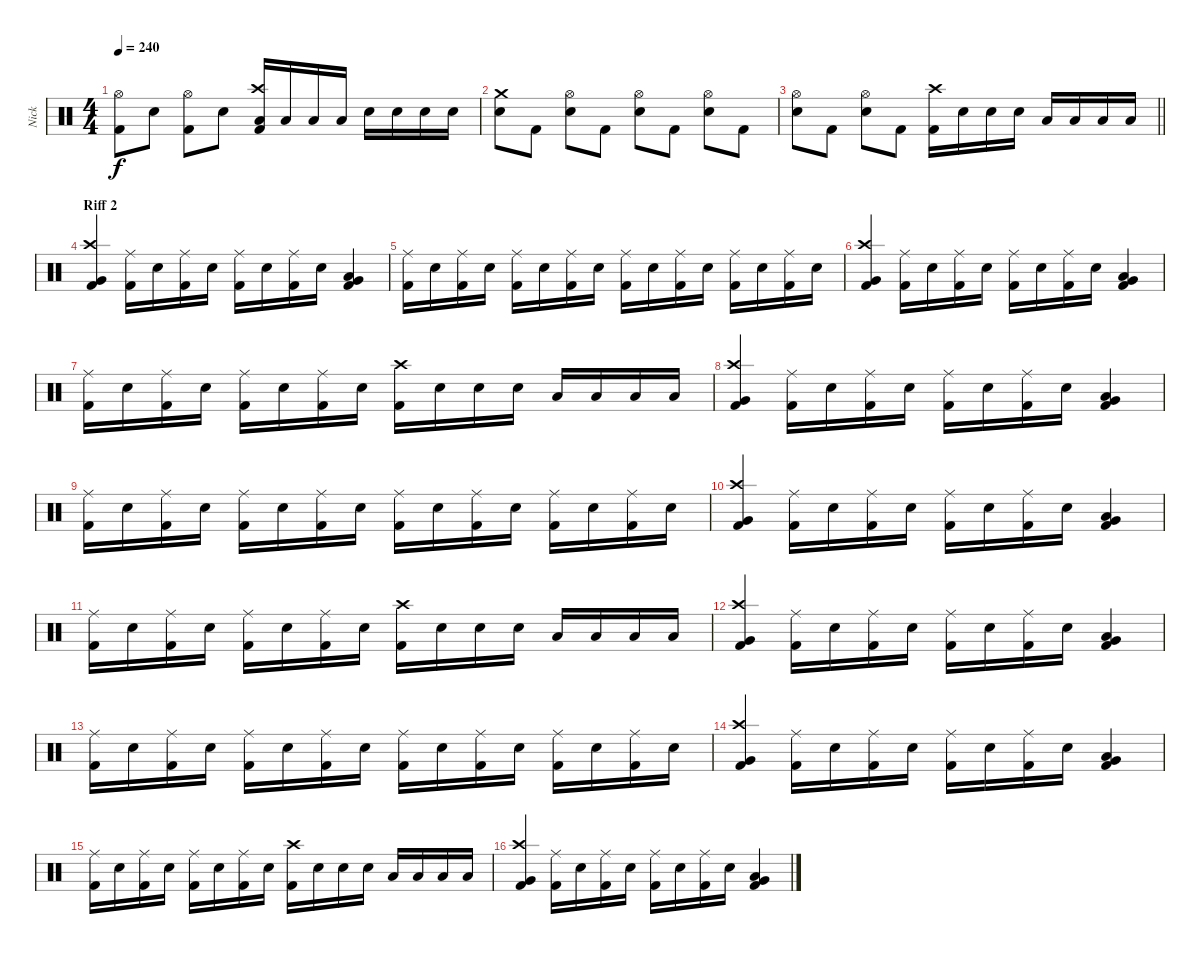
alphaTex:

\track ("Nick" "Nick") {instrument percussion}
\staff {score}
\articulation defaults
\ts (4 4)
\tempo 240
\clef neutral
\ks c
("Hi-Hat (open)" "Kick (hit) 2").8{dy f} "Electric Snare (hit)".8 ("Hi-Hat (open)" "Kick (hit) 2").8 "Electric Snare (hit)".8 ("Crash high (hit)" "Low Tom (hit)" "Kick (hit) 2").16 "Low Tom (hit)".16 "Low Tom (hit)".16 "Low Tom (hit)".16 "Electric Snare (hit)".16 "Electric Snare (hit)".16 "Electric Snare (hit)".16 "Electric Snare (hit)".16 |
("Crash medium (hit)" "Electric Snare (hit)").8 "Kick (hit) 2".8 ("Hi-Hat (open)" "Electric Snare (hit)").8 "Kick (hit) 2".8 ("Hi-Hat (open)" "Electric Snare (hit)").8 "Kick (hit) 2".8 ("Hi-Hat (open)" "Electric Snare (hit)").8 "Kick (hit) 2".8 |
\barLineRight lightlight
("Hi-Hat (open)" "Electric Snare (hit)").8 "Kick (hit) 2".8 ("Hi-Hat (open)" "Electric Snare (hit)").8 "Kick (hit) 2".8 ("Crash high (hit)" "Kick (hit) 2").16 "Electric Snare (hit)".16 "Electric Snare (hit)".16 "Electric Snare (hit)".16 "Low Tom (hit)".16 "Low Tom (hit)".16 "Low Tom (hit)".16 "Low Tom (hit)".16 |
\section ("" "Riff 2")
("Crash high (hit)" "Very Low Tom (hit)" "Kick (hit) 2").4 ("Ride (middle)" "Kick (hit) 2").16 "Electric Snare (hit)".16 ("Ride (middle)" "Kick (hit) 2").16 "Electric Snare (hit)".16 ("Ride (middle)" "Kick (hit) 2").16 "Electric Snare (hit)".16 ("Ride (middle)" "Kick (hit) 2").16 "Electric Snare (hit)".16 ("Low Tom (hit)" "Very Low Tom (hit)" "Kick (hit) 2").4 |
("Ride (middle)" "Kick (hit) 2").16 "Electric Snare (hit)".16 ("Ride (middle)" "Kick (hit) 2").16 "Electric Snare (hit)".16 ("Ride (middle)" "Kick (hit) 2").16 "Electric Snare (hit)".16 ("Ride (middle)" "Kick (hit) 2").16 "Electric Snare (hit)".16 ("Ride (middle)" "Kick (hit) 2").16 "Electric Snare (hit)".16 ("Ride (middle)" "Kick (hit) 2").16 "Electric Snare (hit)".16 ("Ride (middle)" "Kick (hit) 2").16 "Electric Snare (hit)".16 ("Ride (middle)" "Kick (hit) 2").16 "Electric Snare (hit)".16 |
("Crash high (hit)" "Very Low Tom (hit)" "Kick (hit) 2").4 ("Ride (middle)" "Kick (hit) 2").16 "Electric Snare (hit)".16 ("Ride (middle)" "Kick (hit) 2").16 "Electric Snare (hit)".16 ("Ride (middle)" "Kick (hit) 2").16 "Electric Snare (hit)".16 ("Ride (middle)" "Kick (hit) 2").16 "Electric Snare (hit)".16 ("Low Tom (hit)" "Very Low Tom (hit)" "Kick (hit) 2").4 |
("Ride (middle)" "Kick (hit) 2").16 "Electric Snare (hit)".16 ("Ride (middle)" "Kick (hit) 2").16 "Electric Snare (hit)".16 ("Ride (middle)" "Kick (hit) 2").16 "Electric Snare (hit)".16 ("Ride (middle)" "Kick (hit) 2").16 "Electric Snare (hit)".16 ("Crash high (hit)" "Kick (hit) 2").16 "Electric Snare (hit)".16 "Electric Snare (hit)".16 "Electric Snare (hit)".16 "Low Tom (hit)".16 "Low Tom (hit)".16 "Low Tom (hit)".16 "Low Tom (hit)".16 |
("Crash high (hit)" "Very Low Tom (hit)" "Kick (hit) 2").4 ("Ride (middle)" "Kick (hit) 2").16 "Electric Snare (hit)".16 ("Ride (middle)" "Kick (hit) 2").16 "Electric Snare (hit)".16 ("Ride (middle)" "Kick (hit) 2").16 "Electric Snare (hit)".16 ("Ride (middle)" "Kick (hit) 2").16 "Electric Snare (hit)".16 ("Low Tom (hit)" "Very Low Tom (hit)" "Kick (hit) 2").4 |
("Ride (middle)" "Kick (hit) 2").16 "Electric Snare (hit)".16 ("Ride (middle)" "Kick (hit) 2").16 "Electric Snare (hit)".16 ("Ride (middle)" "Kick (hit) 2").16 "Electric Snare (hit)".16 ("Ride (middle)" "Kick (hit) 2").16 "Electric Snare (hit)".16 ("Ride (middle)" "Kick (hit) 2").16 "Electric Snare (hit)".16 ("Ride (middle)" "Kick (hit) 2").16 "Electric Snare (hit)".16 ("Ride (middle)" "Kick (hit) 2").16 "Electric Snare (hit)".16 ("Ride (middle)" "Kick (hit) 2").16 "Electric Snare (hit)".16 |
("Crash high (hit)" "Very Low Tom (hit)" "Kick (hit) 2").4 ("Ride (middle)" "Kick (hit) 2").16 "Electric Snare (hit)".16 ("Ride (middle)" "Kick (hit) 2").16 "Electric Snare (hit)".16 ("Ride (middle)" "Kick (hit) 2").16 "Electric Snare (hit)".16 ("Ride (middle)" "Kick (hit) 2").16 "Electric Snare (hit)".16 ("Low Tom (hit)" "Very Low Tom (hit)" "Kick (hit) 2").4 |
("Ride (middle)" "Kick (hit) 2").16 "Electric Snare (hit)".16 ("Ride (middle)" "Kick (hit) 2").16 "Electric Snare (hit)".16 ("Ride (middle)" "Kick (hit) 2").16 "Electric Snare (hit)".16 ("Ride (middle)" "Kick (hit) 2").16 "Electric Snare (hit)".16 ("Crash high (hit)" "Kick (hit) 2").16 "Electric Snare (hit)".16 "Electric Snare (hit)".16 "Electric Snare (hit)".16 "Low Tom (hit)".16 "Low Tom (hit)".16 "Low Tom (hit)".16 "Low Tom (hit)".16 |
("Crash high (hit)" "Very Low Tom (hit)" "Kick (hit) 2").4 ("Ride (middle)" "Kick (hit) 2").16 "Electric Snare (hit)".16 ("Ride (middle)" "Kick (hit) 2").16 "Electric Snare (hit)".16 ("Ride (middle)" "Kick (hit) 2").16 "Electric Snare (hit)".16 ("Ride (middle)" "Kick (hit) 2").16 "Electric Snare (hit)".16 ("Low Tom (hit)" "Very Low Tom (hit)" "Kick (hit) 2").4 |
("Ride (middle)" "Kick (hit) 2").16 "Electric Snare (hit)".16 ("Ride (middle)" "Kick (hit) 2").16 "Electric Snare (hit)".16 ("Ride (middle)" "Kick (hit) 2").16 "Electric Snare (hit)".16 ("Ride (middle)" "Kick (hit) 2").16 "Electric Snare (hit)".16 ("Ride (middle)" "Kick (hit) 2").16 "Electric Snare (hit)".16 ("Ride (middle)" "Kick (hit) 2").16 "Electric Snare (hit)".16 ("Ride (middle)" "Kick (hit) 2").16 "Electric Snare (hit)".16 ("Ride (middle)" "Kick (hit) 2").16 "Electric Snare (hit)".16 |
("Crash high (hit)" "Very Low Tom (hit)" "Kick (hit) 2").4 ("Ride (middle)" "Kick (hit) 2").16 "Electric Snare (hit)".16 ("Ride (middle)" "Kick (hit) 2").16 "Electric Snare (hit)".16 ("Ride (middle)" "Kick (hit) 2").16 "Electric Snare (hit)".16 ("Ride (middle)" "Kick (hit) 2").16 "Electric Snare (hit)".16 ("Low Tom (hit)" "Very Low Tom (hit)" "Kick (hit) 2").4 |
("Ride (middle)" "Kick (hit) 2").16 "Electric Snare (hit)".16 ("Ride (middle)" "Kick (hit) 2").16 "Electric Snare (hit)".16 ("Ride (middle)" "Kick (hit) 2").16 "Electric Snare (hit)".16 ("Ride (middle)" "Kick (hit) 2").16 "Electric Snare (hit)".16 ("Crash high (hit)" "Kick (hit) 2").16 "Electric Snare (hit)".16 "Electric Snare (hit)".16 "Electric Snare (hit)".16 "Low Tom (hit)".16 "Low Tom (hit)".16 "Low Tom (hit)".16 "Low Tom (hit)".16 |
("Crash high (hit)" "Very Low Tom (hit)" "Kick (hit) 2").4 ("Ride (middle)" "Kick (hit) 2").16 "Electric Snare (hit)".16 ("Ride (middle)" "Kick (hit) 2").16 "Electric Snare (hit)".16 ("Ride (middle)" "Kick (hit) 2").16 "Electric Snare (hit)".16 ("Ride (middle)" "Kick (hit) 2").16 "Electric Snare (hit)".16 ("Low Tom (hit)" "Very Low Tom (hit)" "Kick (hit) 2").4
